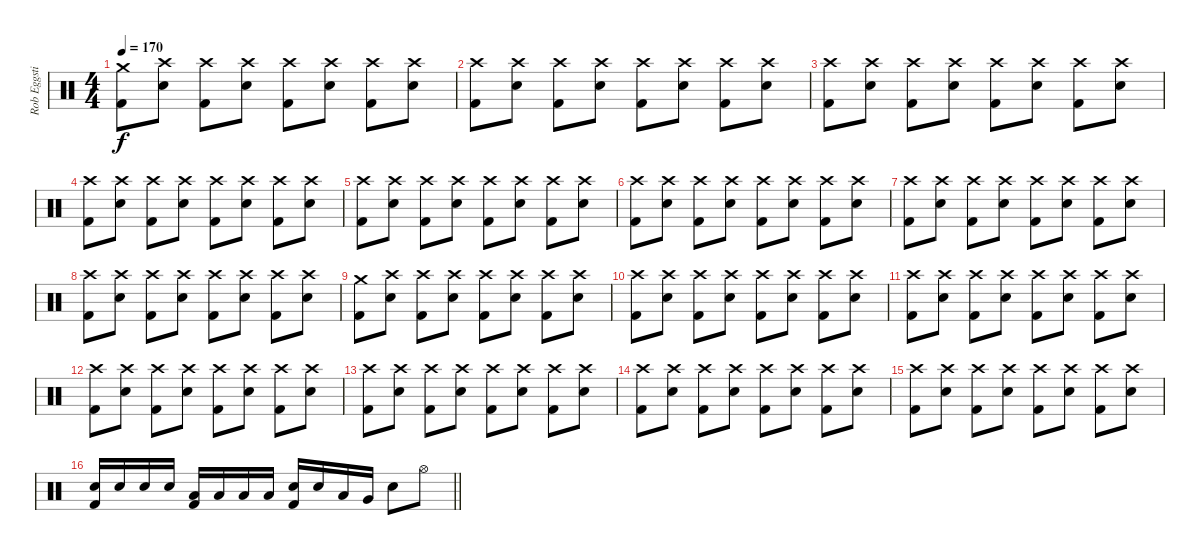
\track ("Rob Eggstick" "Rob Eggsti") {instrument percussion}
\staff {score}
\articulation defaults
\ts (4 4)
\tempo 170
\clef neutral
\ks c
("Crash medium (hit)" "Kick (hit) 2").8{dy f} ("Crash high (hit)" "Electric Snare (hit)").8 ("Crash high (hit)" "Kick (hit) 2").8 ("Crash high (hit)" "Electric Snare (hit)").8 ("Crash high (hit)" "Kick (hit) 2").8 ("Crash high (hit)" "Electric Snare (hit)").8 ("Crash high (hit)" "Kick (hit) 2").8 ("Crash high (hit)" "Electric Snare (hit)").8 |
("Crash high (hit)" "Kick (hit) 2").8 ("Crash high (hit)" "Electric Snare (hit)").8 ("Crash high (hit)" "Kick (hit) 2").8 ("Crash high (hit)" "Electric Snare (hit)").8 ("Crash high (hit)" "Kick (hit) 2").8 ("Crash high (hit)" "Electric Snare (hit)").8 ("Crash high (hit)" "Kick (hit) 2").8 ("Crash high (hit)" "Electric Snare (hit)").8 |
("Crash high (hit)" "Kick (hit) 2").8 ("Crash high (hit)" "Electric Snare (hit)").8 ("Crash high (hit)" "Kick (hit) 2").8 ("Crash high (hit)" "Electric Snare (hit)").8 ("Crash high (hit)" "Kick (hit) 2").8 ("Crash high (hit)" "Electric Snare (hit)").8 ("Crash high (hit)" "Kick (hit) 2").8 ("Crash high (hit)" "Electric Snare (hit)").8 |
("Crash high (hit)" "Kick (hit) 2").8 ("Crash high (hit)" "Electric Snare (hit)").8 ("Crash high (hit)" "Kick (hit) 2").8 ("Crash high (hit)" "Electric Snare (hit)").8 ("Crash high (hit)" "Kick (hit) 2").8 ("Crash high (hit)" "Electric Snare (hit)").8 ("Crash high (hit)" "Kick (hit) 2").8 ("Crash high (hit)" "Electric Snare (hit)").8 |
("Crash high (hit)" "Kick (hit) 2").8 ("Crash high (hit)" "Electric Snare (hit)").8 ("Crash high (hit)" "Kick (hit) 2").8 ("Crash high (hit)" "Electric Snare (hit)").8 ("Crash high (hit)" "Kick (hit) 2").8 ("Crash high (hit)" "Electric Snare (hit)").8 ("Crash high (hit)" "Kick (hit) 2").8 ("Crash high (hit)" "Electric Snare (hit)").8 |
("Crash high (hit)" "Kick (hit) 2").8 ("Crash high (hit)" "Electric Snare (hit)").8 ("Crash high (hit)" "Kick (hit) 2").8 ("Crash high (hit)" "Electric Snare (hit)").8 ("Crash high (hit)" "Kick (hit) 2").8 ("Crash high (hit)" "Electric Snare (hit)").8 ("Crash high (hit)" "Kick (hit) 2").8 ("Crash high (hit)" "Electric Snare (hit)").8 |
("Crash high (hit)" "Kick (hit) 2").8 ("Crash high (hit)" "Electric Snare (hit)").8 ("Crash high (hit)" "Kick (hit) 2").8 ("Crash high (hit)" "Electric Snare (hit)").8 ("Crash high (hit)" "Kick (hit) 2").8 ("Crash high (hit)" "Electric Snare (hit)").8 ("Crash high (hit)" "Kick (hit) 2").8 ("Crash high (hit)" "Electric Snare (hit)").8 |
("Crash high (hit)" "Kick (hit) 2").8 ("Crash high (hit)" "Electric Snare (hit)").8 ("Crash high (hit)" "Kick (hit) 2").8 ("Crash high (hit)" "Electric Snare (hit)").8 ("Crash high (hit)" "Kick (hit) 2").8 ("Crash high (hit)" "Electric Snare (hit)").8 ("Crash high (hit)" "Kick (hit) 2").8 ("Crash high (hit)" "Electric Snare (hit)").8 |
("Crash medium (hit)" "Kick (hit) 2").8 ("Crash high (hit)" "Electric Snare (hit)").8 ("Crash high (hit)" "Kick (hit) 2").8 ("Crash high (hit)" "Electric Snare (hit)").8 ("Crash high (hit)" "Kick (hit) 2").8 ("Crash high (hit)" "Electric Snare (hit)").8 ("Crash high (hit)" "Kick (hit) 2").8 ("Crash high (hit)" "Electric Snare (hit)").8 |
("Crash high (hit)" "Kick (hit) 2").8 ("Crash high (hit)" "Electric Snare (hit)").8 ("Crash high (hit)" "Kick (hit) 2").8 ("Crash high (hit)" "Electric Snare (hit)").8 ("Crash high (hit)" "Kick (hit) 2").8 ("Crash high (hit)" "Electric Snare (hit)").8 ("Crash high (hit)" "Kick (hit) 2").8 ("Crash high (hit)" "Electric Snare (hit)").8 |
("Crash high (hit)" "Kick (hit) 2").8 ("Crash high (hit)" "Electric Snare (hit)").8 ("Crash high (hit)" "Kick (hit) 2").8 ("Crash high (hit)" "Electric Snare (hit)").8 ("Crash high (hit)" "Kick (hit) 2").8 ("Crash high (hit)" "Electric Snare (hit)").8 ("Crash high (hit)" "Kick (hit) 2").8 ("Crash high (hit)" "Electric Snare (hit)").8 |
("Crash high (hit)" "Kick (hit) 2").8 ("Crash high (hit)" "Electric Snare (hit)").8 ("Crash high (hit)" "Kick (hit) 2").8 ("Crash high (hit)" "Electric Snare (hit)").8 ("Crash high (hit)" "Kick (hit) 2").8 ("Crash high (hit)" "Electric Snare (hit)").8 ("Crash high (hit)" "Kick (hit) 2").8 ("Crash high (hit)" "Electric Snare (hit)").8 |
("Crash high (hit)" "Kick (hit) 2").8 ("Crash high (hit)" "Electric Snare (hit)").8 ("Crash high (hit)" "Kick (hit) 2").8 ("Crash high (hit)" "Electric Snare (hit)").8 ("Crash high (hit)" "Kick (hit) 2").8 ("Crash high (hit)" "Electric Snare (hit)").8 ("Crash high (hit)" "Kick (hit) 2").8 ("Crash high (hit)" "Electric Snare (hit)").8 |
("Crash high (hit)" "Kick (hit) 2").8 ("Crash high (hit)" "Electric Snare (hit)").8 ("Crash high (hit)" "Kick (hit) 2").8 ("Crash high (hit)" "Electric Snare (hit)").8 ("Crash high (hit)" "Kick (hit) 2").8 ("Crash high (hit)" "Electric Snare (hit)").8 ("Crash high (hit)" "Kick (hit) 2").8 ("Crash high (hit)" "Electric Snare (hit)").8 |
("Crash high (hit)" "Kick (hit) 2").8 ("Crash high (hit)" "Electric Snare (hit)").8 ("Crash high (hit)" "Kick (hit) 2").8 ("Crash high (hit)" "Electric Snare (hit)").8 ("Crash high (hit)" "Kick (hit) 2").8 ("Crash high (hit)" "Electric Snare (hit)").8 ("Crash high (hit)" "Kick (hit) 2").8 ("Crash high (hit)" "Electric Snare (hit)").8 |
\barLineRight lightlight
("Electric Snare (hit)" "Kick (hit) 2").16 "Electric Snare (hit)".16 "Electric Snare (hit)".16 "Electric Snare (hit)".16 ("Low Tom (hit)" "Kick (hit) 2").16 "Low Tom (hit)".16 "Low Tom (hit)".16 "Low Tom (hit)".16 ("Electric Snare (hit)" "Kick (hit) 2").16 "Electric Snare (hit)".16 "Low Tom (hit)".16 "Very Low Tom (hit)".16 "Electric Snare (hit)".8 "Hi-Hat (open)".8
